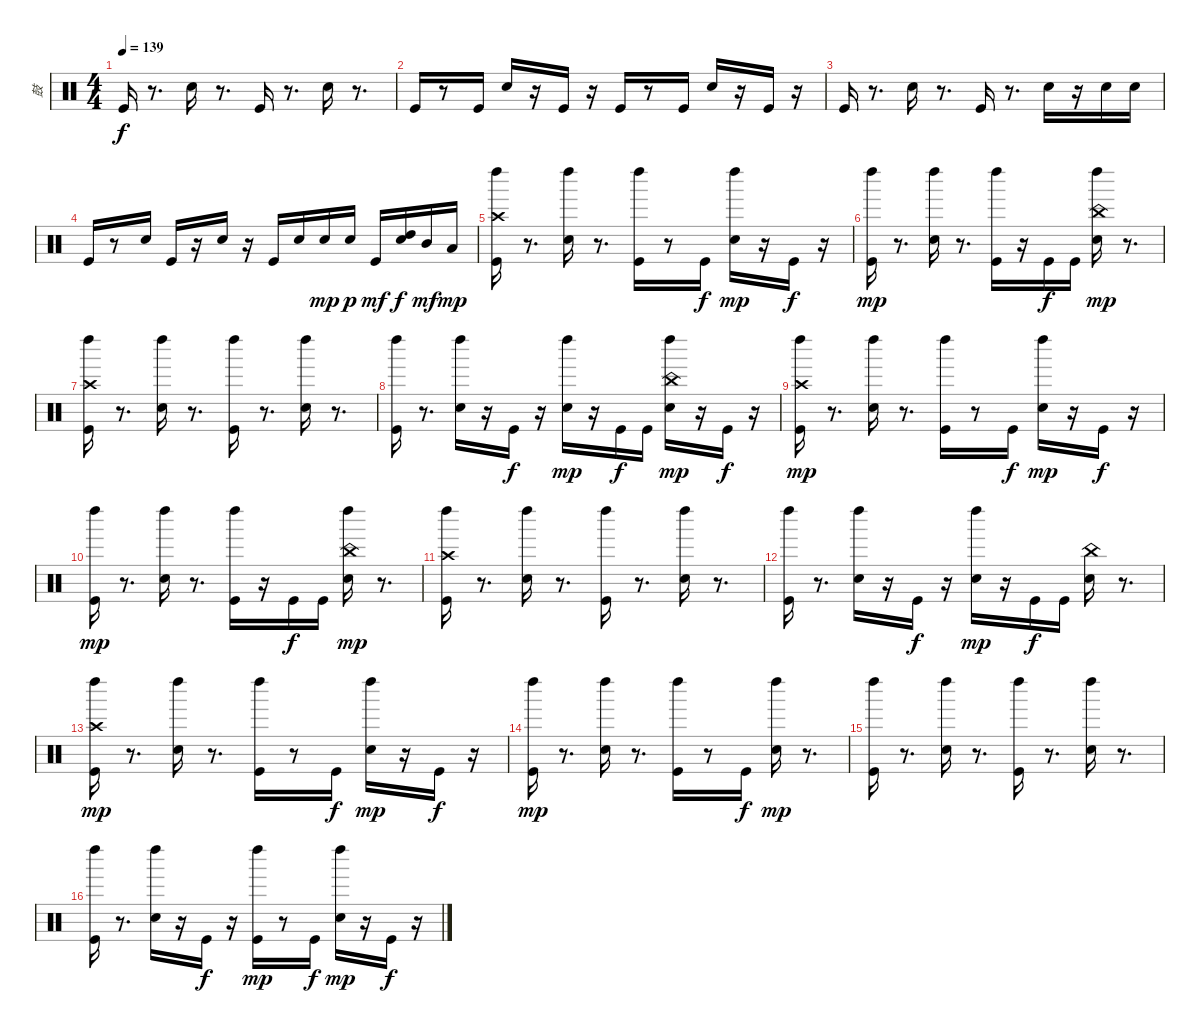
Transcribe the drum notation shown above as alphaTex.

\track ("鼓" "鼓") {instrument percussion}
\staff {score}
\articulation defaults
\ts (4 4)
\tempo 139
\clef neutral
\ks c "Kick (hit)".16{dy f}
r.8{d} "Electric Snare (hit)".16{balance 10} r.8{d} "Kick (hit)".16{balance 8} r.8{d} "Electric Snare (hit)".16{balance 10} r.8{d} |
"Kick (hit)".16{balance 8} r.8 "Kick (hit)".16 "Electric Snare (hit)".16{balance 10} r.16 "Kick (hit)".16{balance 8} r.16 "Kick (hit)".16 r.8 "Kick (hit)".16 "Electric Snare (hit)".16{balance 10} r.16 "Kick (hit)".16{balance 8} r.16 |
"Kick (hit)".16 r.8{d} "Electric Snare (hit)".16{balance 10} r.8{d} "Kick (hit)".16{balance 8} r.8{d} "Electric Snare (hit)".16{balance 10} r.16 "Electric Snare (hit)".16{balance 8} "Electric Snare (hit)".16 |
"Kick (hit)".16{balance 10} r.8 "Electric Snare (hit)".16{balance 8} "Kick (hit)".16{balance 10} r.16 "Electric Snare (hit)".16{balance 8} r.16 "Kick (hit)".16{balance 10} "Electric Snare (hit)".16{balance 8} "Electric Snare (hit)".16{dy mp} "Electric Snare (hit)".16{dy p} "Kick (hit)".16{dy mf balance 10} ("Electric Snare (hit)" "High Tom (hit)").16{dy f balance 8} "Mid Tom (hit)".16{dy mf balance 12} "Low Tom (hit)".16{dy mp} |
("Kick (hit)" "Crash high (hit)" "Left Maraca (hit)").16{balance 8} r.8{d} ("Left Maraca (hit)" "Electric Snare (hit)").16 r.8{d} ("Left Maraca (hit)" "Kick (hit)").16 r.8 "Kick (hit)".16{dy f} ("Electric Snare (hit)" "Left Maraca (hit)").16{dy mp} r.16 "Kick (hit)".16{dy f} r.16 |
("Kick (hit)" "Left Maraca (hit)").16{dy mp} r.8{d} ("Electric Snare (hit)" "Left Maraca (hit)").16 r.8{d} ("Kick (hit)" "Left Maraca (hit)").16 r.16 "Kick (hit)".16{dy f} "Kick (hit)".16 ("Electric Snare (hit)" "China (hit)" "Left Maraca (hit)").16{dy mp} r.8{d} |
("Kick (hit)" "Left Maraca (hit)" "Crash high (hit)").16 r.8{d} ("Left Maraca (hit)" "Electric Snare (hit)").16 r.8{d} ("Kick (hit)" "Left Maraca (hit)").16 r.8{d} ("Left Maraca (hit)" "Electric Snare (hit)").16 r.8{d} |
("Left Maraca (hit)" "Kick (hit)").16 r.8{d} ("Electric Snare (hit)" "Left Maraca (hit)").16 r.16 "Kick (hit)".16{dy f} r.16 ("Left Maraca (hit)" "Electric Snare (hit)").16{dy mp} r.16 "Kick (hit)".16{dy f} "Kick (hit)".16 ("Left Maraca (hit)" "China (hit)" "Electric Snare (hit)").16{dy mp} r.16 "Kick (hit)".16{dy f} r.16 |
("Left Maraca (hit)" "Kick (hit)" "Crash high (hit)").16{dy mp} r.8{d} ("Left Maraca (hit)" "Electric Snare (hit)").16 r.8{d} ("Left Maraca (hit)" "Kick (hit)").16 r.8 "Kick (hit)".16{dy f} ("Electric Snare (hit)" "Left Maraca (hit)").16{dy mp} r.16 "Kick (hit)".16{dy f} r.16 |
("Kick (hit)" "Left Maraca (hit)").16{dy mp} r.8{d} ("Electric Snare (hit)" "Left Maraca (hit)").16 r.8{d} ("Kick (hit)" "Left Maraca (hit)").16 r.16 "Kick (hit)".16{dy f} "Kick (hit)".16 ("China (hit)" "Left Maraca (hit)" "Electric Snare (hit)").16{dy mp} r.8{d} |
("Kick (hit)" "Crash high (hit)" "Left Maraca (hit)").16 r.8{d} ("Left Maraca (hit)" "Electric Snare (hit)").16 r.8{d} ("Left Maraca (hit)" "Kick (hit)").16 r.8{d} ("Electric Snare (hit)" "Left Maraca (hit)").16 r.8{d} |
("Kick (hit)" "Left Maraca (hit)").16 r.8{d} ("Electric Snare (hit)" "Left Maraca (hit)").16 r.16 "Kick (hit)".16{dy f} r.16 ("Electric Snare (hit)" "Left Maraca (hit)").16{dy mp} r.16 "Kick (hit)".16{dy f} "Kick (hit)".16 ("China (hit)" "Electric Snare (hit)").16 r.8{d} |
("Left Maraca (hit)" "Kick (hit)" "Crash high (hit)").16{dy mp} r.8{d} ("Left Maraca (hit)" "Electric Snare (hit)").16 r.8{d} ("Left Maraca (hit)" "Kick (hit)").16 r.8 "Kick (hit)".16{dy f} ("Left Maraca (hit)" "Electric Snare (hit)").16{dy mp} r.16 "Kick (hit)".16{dy f} r.16 |
("Kick (hit)" "Left Maraca (hit)").16{dy mp} r.8{d} ("Left Maraca (hit)" "Electric Snare (hit)").16 r.8{d} ("Kick (hit)" "Left Maraca (hit)").16 r.8 "Kick (hit)".16{dy f} ("Electric Snare (hit)" "Left Maraca (hit)").16{dy mp} r.8{d} |
("Kick (hit)" "Left Maraca (hit)").16 r.8{d} ("Electric Snare (hit)" "Left Maraca (hit)").16 r.8{d} ("Left Maraca (hit)" "Kick (hit)").16 r.8{d} ("Electric Snare (hit)" "Left Maraca (hit)").16 r.8{d} |
("Left Maraca (hit)" "Kick (hit)").16 r.8{d} ("Electric Snare (hit)" "Left Maraca (hit)").16 r.16 "Kick (hit)".16{dy f} r.16 ("Left Maraca (hit)" "Kick (hit)").16{dy mp} r.8 "Kick (hit)".16{dy f} ("Left Maraca (hit)" "Electric Snare (hit)").16{dy mp} r.16 "Kick (hit)".16{dy f} r.16
